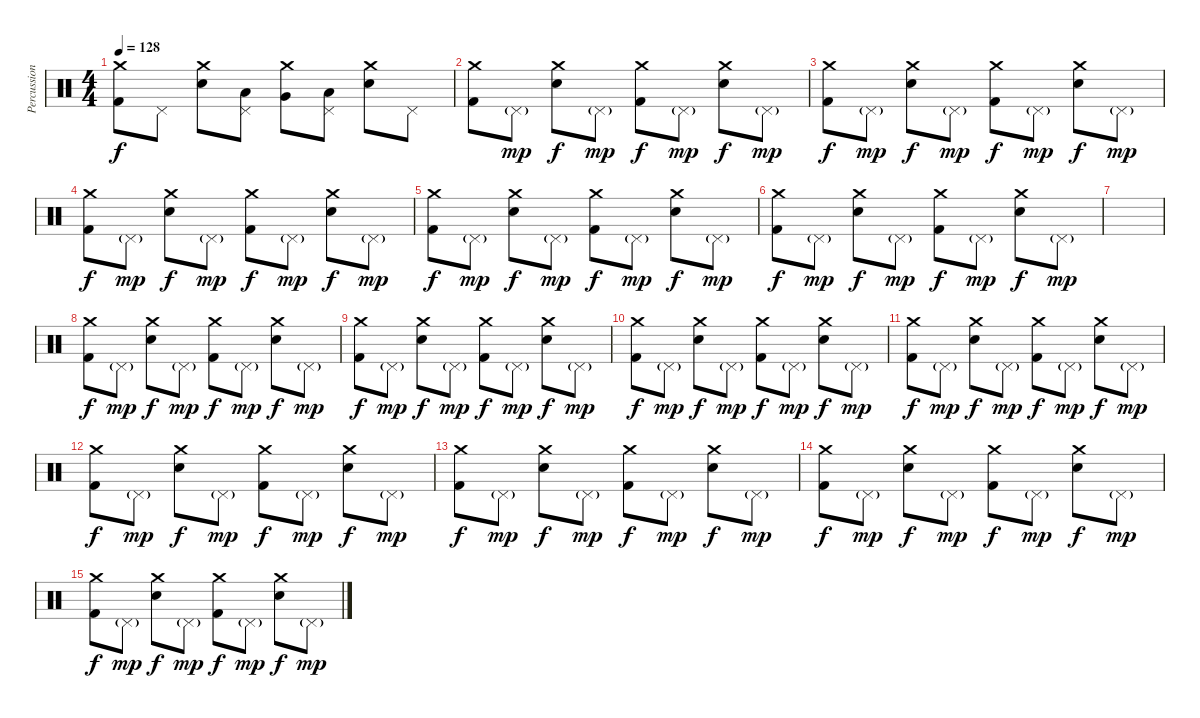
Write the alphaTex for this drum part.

\track ("Percussions" "Percussion") {instrument percussion}
\staff {score}
\articulation defaults
\ts (4 4)
\tempo 128
\clef neutral
\ks c
("Crash medium (hit)" "Kick (hit) 2").8{dy f} "Pedal Hi-Hat (hit)".8 ("Electric Snare (hit)" "Crash medium (hit)").8 ("Pedal Hi-Hat (hit)" "Low Tom (hit)").8 ("Very Low Tom (hit)" "Crash medium (hit)").8 ("Pedal Hi-Hat (hit)" "Low Floor Tom (hit)").8 ("Electric Snare (hit)" "Crash medium (hit)").8 "Pedal Hi-Hat (hit)".8 |
("Kick (hit) 2" "Crash medium (hit)").8 "Pedal Hi-Hat (hit)"{g}.8{dy mp} ("Electric Snare (hit)" "Crash medium (hit)").8{dy f} "Pedal Hi-Hat (hit)"{g}.8{dy mp} ("Kick (hit) 2" "Crash medium (hit)").8{dy f} "Pedal Hi-Hat (hit)"{g}.8{dy mp} ("Electric Snare (hit)" "Crash medium (hit)").8{dy f} "Pedal Hi-Hat (hit)"{g}.8{dy mp} |
("Kick (hit) 2" "Crash medium (hit)").8{dy f} "Pedal Hi-Hat (hit)"{g}.8{dy mp} ("Electric Snare (hit)" "Crash medium (hit)").8{dy f} "Pedal Hi-Hat (hit)"{g}.8{dy mp} ("Kick (hit) 2" "Crash medium (hit)").8{dy f} "Pedal Hi-Hat (hit)"{g}.8{dy mp} ("Electric Snare (hit)" "Crash medium (hit)").8{dy f} "Pedal Hi-Hat (hit)"{g}.8{dy mp} |
("Kick (hit) 2" "Crash medium (hit)").8{dy f} "Pedal Hi-Hat (hit)"{g}.8{dy mp} ("Electric Snare (hit)" "Crash medium (hit)").8{dy f} "Pedal Hi-Hat (hit)"{g}.8{dy mp} ("Kick (hit) 2" "Crash medium (hit)").8{dy f} "Pedal Hi-Hat (hit)"{g}.8{dy mp} ("Electric Snare (hit)" "Crash medium (hit)").8{dy f} "Pedal Hi-Hat (hit)"{g}.8{dy mp} |
("Kick (hit) 2" "Crash medium (hit)").8{dy f} "Pedal Hi-Hat (hit)"{g}.8{dy mp} ("Electric Snare (hit)" "Crash medium (hit)").8{dy f} "Pedal Hi-Hat (hit)"{g}.8{dy mp} ("Kick (hit) 2" "Crash medium (hit)").8{dy f} "Pedal Hi-Hat (hit)"{g}.8{dy mp} ("Electric Snare (hit)" "Crash medium (hit)").8{dy f} "Pedal Hi-Hat (hit)"{g}.8{dy mp} |
("Kick (hit) 2" "Crash medium (hit)").8{dy f} "Pedal Hi-Hat (hit)"{g}.8{dy mp} ("Electric Snare (hit)" "Crash medium (hit)").8{dy f} "Pedal Hi-Hat (hit)"{g}.8{dy mp} ("Kick (hit) 2" "Crash medium (hit)").8{dy f} "Pedal Hi-Hat (hit)"{g}.8{dy mp} ("Electric Snare (hit)" "Crash medium (hit)").8{dy f} "Pedal Hi-Hat (hit)"{g}.8{dy mp} |
|
("Kick (hit) 2" "Crash medium (hit)").8{dy f} "Pedal Hi-Hat (hit)"{g}.8{dy mp} ("Electric Snare (hit)" "Crash medium (hit)").8{dy f} "Pedal Hi-Hat (hit)"{g}.8{dy mp} ("Kick (hit) 2" "Crash medium (hit)").8{dy f} "Pedal Hi-Hat (hit)"{g}.8{dy mp} ("Electric Snare (hit)" "Crash medium (hit)").8{dy f} "Pedal Hi-Hat (hit)"{g}.8{dy mp} |
("Kick (hit) 2" "Crash medium (hit)").8{dy f} "Pedal Hi-Hat (hit)"{g}.8{dy mp} ("Electric Snare (hit)" "Crash medium (hit)").8{dy f} "Pedal Hi-Hat (hit)"{g}.8{dy mp} ("Kick (hit) 2" "Crash medium (hit)").8{dy f} "Pedal Hi-Hat (hit)"{g}.8{dy mp} ("Electric Snare (hit)" "Crash medium (hit)").8{dy f} "Pedal Hi-Hat (hit)"{g}.8{dy mp} |
("Kick (hit) 2" "Crash medium (hit)").8{dy f} "Pedal Hi-Hat (hit)"{g}.8{dy mp} ("Electric Snare (hit)" "Crash medium (hit)").8{dy f} "Pedal Hi-Hat (hit)"{g}.8{dy mp} ("Kick (hit) 2" "Crash medium (hit)").8{dy f} "Pedal Hi-Hat (hit)"{g}.8{dy mp} ("Electric Snare (hit)" "Crash medium (hit)").8{dy f} "Pedal Hi-Hat (hit)"{g}.8{dy mp} |
("Kick (hit) 2" "Crash medium (hit)").8{dy f} "Pedal Hi-Hat (hit)"{g}.8{dy mp} ("Electric Snare (hit)" "Crash medium (hit)").8{dy f} "Pedal Hi-Hat (hit)"{g}.8{dy mp} ("Kick (hit) 2" "Crash medium (hit)").8{dy f} "Pedal Hi-Hat (hit)"{g}.8{dy mp} ("Electric Snare (hit)" "Crash medium (hit)").8{dy f} "Pedal Hi-Hat (hit)"{g}.8{dy mp} |
("Kick (hit) 2" "Crash medium (hit)").8{dy f} "Pedal Hi-Hat (hit)"{g}.8{dy mp} ("Electric Snare (hit)" "Crash medium (hit)").8{dy f} "Pedal Hi-Hat (hit)"{g}.8{dy mp} ("Kick (hit) 2" "Crash medium (hit)").8{dy f} "Pedal Hi-Hat (hit)"{g}.8{dy mp} ("Electric Snare (hit)" "Crash medium (hit)").8{dy f} "Pedal Hi-Hat (hit)"{g}.8{dy mp} |
("Kick (hit) 2" "Crash medium (hit)").8{dy f} "Pedal Hi-Hat (hit)"{g}.8{dy mp} ("Electric Snare (hit)" "Crash medium (hit)").8{dy f} "Pedal Hi-Hat (hit)"{g}.8{dy mp} ("Kick (hit) 2" "Crash medium (hit)").8{dy f} "Pedal Hi-Hat (hit)"{g}.8{dy mp} ("Electric Snare (hit)" "Crash medium (hit)").8{dy f} "Pedal Hi-Hat (hit)"{g}.8{dy mp} |
("Kick (hit) 2" "Crash medium (hit)").8{dy f} "Pedal Hi-Hat (hit)"{g}.8{dy mp} ("Electric Snare (hit)" "Crash medium (hit)").8{dy f} "Pedal Hi-Hat (hit)"{g}.8{dy mp} ("Kick (hit) 2" "Crash medium (hit)").8{dy f} "Pedal Hi-Hat (hit)"{g}.8{dy mp} ("Electric Snare (hit)" "Crash medium (hit)").8{dy f} "Pedal Hi-Hat (hit)"{g}.8{dy mp} |
("Kick (hit) 2" "Crash medium (hit)").8{dy f} "Pedal Hi-Hat (hit)"{g}.8{dy mp} ("Electric Snare (hit)" "Crash medium (hit)").8{dy f} "Pedal Hi-Hat (hit)"{g}.8{dy mp} ("Kick (hit) 2" "Crash medium (hit)").8{dy f} "Pedal Hi-Hat (hit)"{g}.8{dy mp} ("Electric Snare (hit)" "Crash medium (hit)").8{dy f} "Pedal Hi-Hat (hit)"{g}.8{dy mp}
